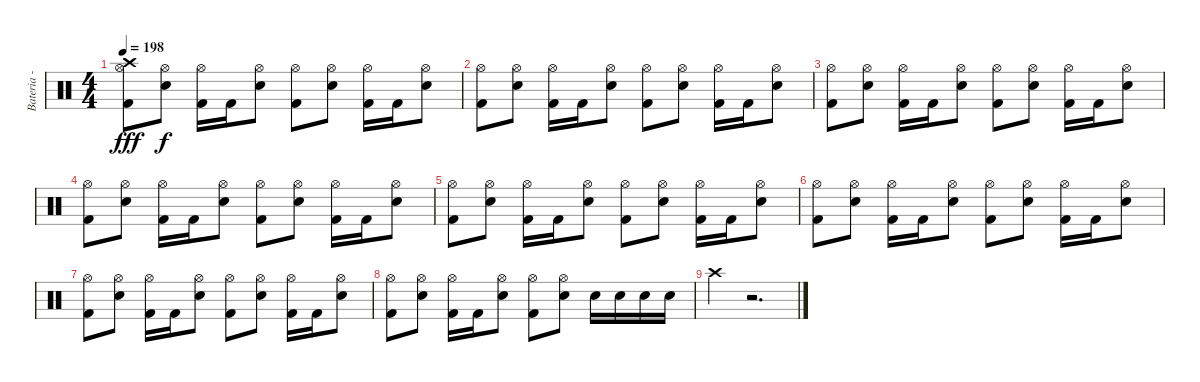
\track ("Bateria - Larzon" "Bateria - ") {instrument percussion}
\staff {score}
\articulation defaults
\ts (4 4)
\tempo 198
\clef neutral
\ks c
("Crash high (hit)" "Hi-Hat (open)" "Kick (hit) 2").8{dy fff} ("Hi-Hat (open)" "Snare (hit) 2").8{dy f} ("Hi-Hat (open)" "Kick (hit) 2").16 "Kick (hit) 2".16 ("Hi-Hat (open)" "Snare (hit) 2").8 ("Hi-Hat (open)" "Kick (hit) 2").8 ("Hi-Hat (open)" "Snare (hit) 2").8 ("Hi-Hat (open)" "Kick (hit) 2").16 "Kick (hit) 2".16 ("Hi-Hat (open)" "Snare (hit) 2").8 |
("Hi-Hat (open)" "Kick (hit) 2").8 ("Hi-Hat (open)" "Snare (hit) 2").8 ("Hi-Hat (open)" "Kick (hit) 2").16 "Kick (hit) 2".16 ("Hi-Hat (open)" "Snare (hit) 2").8 ("Hi-Hat (open)" "Kick (hit) 2").8 ("Hi-Hat (open)" "Snare (hit) 2").8 ("Hi-Hat (open)" "Kick (hit) 2").16 "Kick (hit) 2".16 ("Hi-Hat (open)" "Snare (hit) 2").8 |
("Hi-Hat (open)" "Kick (hit) 2").8 ("Hi-Hat (open)" "Snare (hit) 2").8 ("Hi-Hat (open)" "Kick (hit) 2").16 "Kick (hit) 2".16 ("Hi-Hat (open)" "Snare (hit) 2").8 ("Hi-Hat (open)" "Kick (hit) 2").8 ("Hi-Hat (open)" "Snare (hit) 2").8 ("Hi-Hat (open)" "Kick (hit) 2").16 "Kick (hit) 2".16 ("Hi-Hat (open)" "Snare (hit) 2").8 |
("Hi-Hat (open)" "Kick (hit) 2").8 ("Hi-Hat (open)" "Snare (hit) 2").8 ("Hi-Hat (open)" "Kick (hit) 2").16 "Kick (hit) 2".16 ("Hi-Hat (open)" "Snare (hit) 2").8 ("Hi-Hat (open)" "Kick (hit) 2").8 ("Hi-Hat (open)" "Snare (hit) 2").8 ("Hi-Hat (open)" "Kick (hit) 2").16 "Kick (hit) 2".16 ("Hi-Hat (open)" "Snare (hit) 2").8 |
("Hi-Hat (open)" "Kick (hit) 2").8 ("Hi-Hat (open)" "Snare (hit) 2").8 ("Hi-Hat (open)" "Kick (hit) 2").16 "Kick (hit) 2".16 ("Hi-Hat (open)" "Snare (hit) 2").8 ("Hi-Hat (open)" "Kick (hit) 2").8 ("Hi-Hat (open)" "Snare (hit) 2").8 ("Hi-Hat (open)" "Kick (hit) 2").16 "Kick (hit) 2".16 ("Hi-Hat (open)" "Snare (hit) 2").8 |
("Hi-Hat (open)" "Kick (hit) 2").8 ("Hi-Hat (open)" "Snare (hit) 2").8 ("Hi-Hat (open)" "Kick (hit) 2").16 "Kick (hit) 2".16 ("Hi-Hat (open)" "Snare (hit) 2").8 ("Hi-Hat (open)" "Kick (hit) 2").8 ("Hi-Hat (open)" "Snare (hit) 2").8 ("Hi-Hat (open)" "Kick (hit) 2").16 "Kick (hit) 2".16 ("Hi-Hat (open)" "Snare (hit) 2").8 |
("Hi-Hat (open)" "Kick (hit) 2").8 ("Hi-Hat (open)" "Snare (hit) 2").8 ("Hi-Hat (open)" "Kick (hit) 2").16 "Kick (hit) 2".16 ("Hi-Hat (open)" "Snare (hit) 2").8 ("Hi-Hat (open)" "Kick (hit) 2").8 ("Hi-Hat (open)" "Snare (hit) 2").8 ("Hi-Hat (open)" "Kick (hit) 2").16 "Kick (hit) 2".16 ("Hi-Hat (open)" "Snare (hit) 2").8 |
("Hi-Hat (open)" "Kick (hit) 2").8 ("Hi-Hat (open)" "Snare (hit) 2").8 ("Hi-Hat (open)" "Kick (hit) 2").16 "Kick (hit) 2".16 ("Hi-Hat (open)" "Snare (hit) 2").8 ("Hi-Hat (open)" "Kick (hit) 2").8 ("Hi-Hat (open)" "Snare (hit) 2").8 "Snare (hit) 2".16 "Snare (hit) 2".16 "Snare (hit) 2".16 "Snare (hit) 2".16 |
"Crash high (hit)".4 r.2{d}
